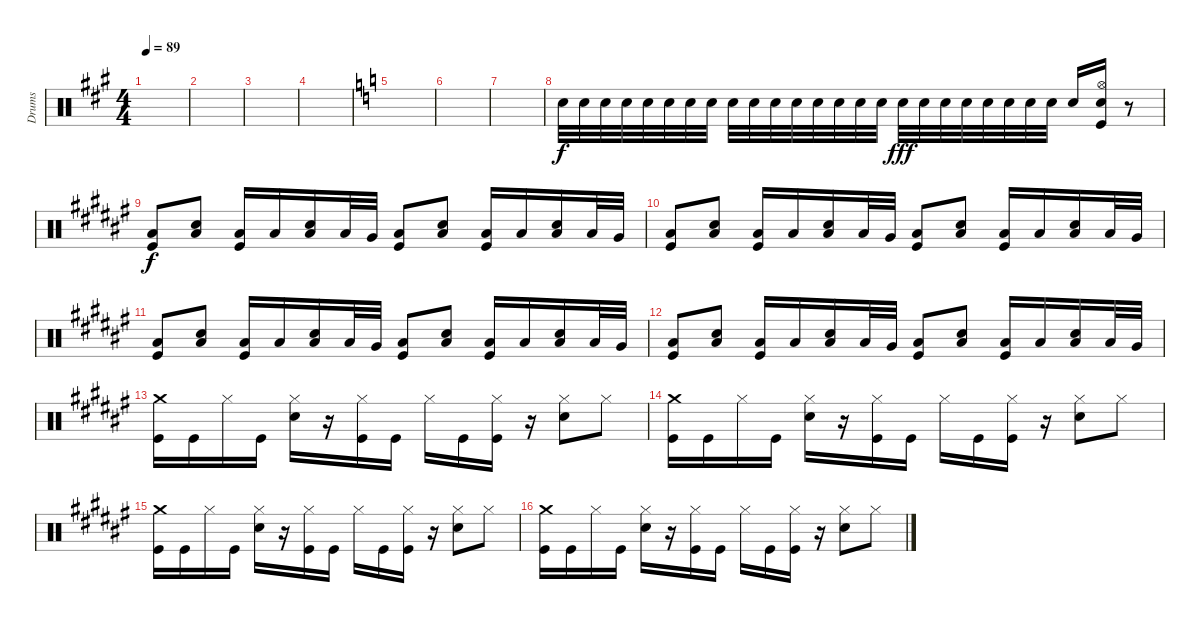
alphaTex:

\track ("Drums" "Drums") {instrument percussion}
\staff {score}
\articulation defaults
\ts (4 4)
\tempo 89
\clef neutral
\ks f#minor
|
|
|
|
\ks c
|
|
|
"Snare (hit) 2".32 "Snare (hit) 2".32 "Snare (hit) 2".32 "Snare (hit) 2".32 "Snare (hit) 2".32 "Snare (hit) 2".32 "Snare (hit) 2".32 "Snare (hit) 2".32 "Snare (hit) 2".32{dy f} "Snare (hit) 2".32 "Snare (hit) 2".32 "Snare (hit) 2".32 "Snare (hit) 2".32 "Snare (hit) 2".32 "Snare (hit) 2".32 "Snare (hit) 2".32 "Snare (hit) 2".32{dy fff} "Snare (hit) 2".32 "Snare (hit) 2".32 "Snare (hit) 2".32 "Snare (hit) 2".32 "Snare (hit) 2".32 "Snare (hit) 2".32 "Snare (hit) 2".32 "Snare (hit) 2".16 ("Hi-Hat (open)" "Snare (hit) 2" "Kick (hit)").16 r.8 |
\ks f#
("Kick (hit)" "Low Floor Tom (hit)").8{dy f} ("Snare (hit) 2" "Low Floor Tom (hit)").8 ("Kick (hit)" "Low Floor Tom (hit)").16 "Low Floor Tom (hit)".16 ("Snare (hit) 2" "Low Floor Tom (hit)").16 "Low Floor Tom (hit)".32 "Very Low Tom (hit)".32 ("Kick (hit)" "Low Floor Tom (hit)").8 ("Snare (hit) 2" "Low Floor Tom (hit)").8 ("Kick (hit)" "Low Floor Tom (hit)").16 "Low Floor Tom (hit)".16 ("Snare (hit) 2" "Low Floor Tom (hit)").16 "Low Floor Tom (hit)".32 "Very Low Tom (hit)".32 |
("Kick (hit)" "Low Floor Tom (hit)").8 ("Snare (hit) 2" "Low Floor Tom (hit)").8 ("Kick (hit)" "Low Floor Tom (hit)").16 "Low Floor Tom (hit)".16 ("Snare (hit) 2" "Low Floor Tom (hit)").16 "Low Floor Tom (hit)".32 "Very Low Tom (hit)".32 ("Kick (hit)" "Low Floor Tom (hit)").8 ("Snare (hit) 2" "Low Floor Tom (hit)").8 ("Kick (hit)" "Low Floor Tom (hit)").16 "Low Floor Tom (hit)".16 ("Snare (hit) 2" "Low Floor Tom (hit)").16 "Low Floor Tom (hit)".32 "Very Low Tom (hit)".32 |
("Kick (hit)" "Low Floor Tom (hit)").8 ("Snare (hit) 2" "Low Floor Tom (hit)").8 ("Kick (hit)" "Low Floor Tom (hit)").16 "Low Floor Tom (hit)".16 ("Snare (hit) 2" "Low Floor Tom (hit)").16 "Low Floor Tom (hit)".32 "Very Low Tom (hit)".32 ("Kick (hit)" "Low Floor Tom (hit)").8 ("Snare (hit) 2" "Low Floor Tom (hit)").8 ("Kick (hit)" "Low Floor Tom (hit)").16 "Low Floor Tom (hit)".16 ("Snare (hit) 2" "Low Floor Tom (hit)").16 "Low Floor Tom (hit)".32 "Very Low Tom (hit)".32 |
("Kick (hit)" "Low Floor Tom (hit)").8 ("Snare (hit) 2" "Low Floor Tom (hit)").8 ("Kick (hit)" "Low Floor Tom (hit)").16 "Low Floor Tom (hit)".16 ("Snare (hit) 2" "Low Floor Tom (hit)").16 "Low Floor Tom (hit)".32 "Very Low Tom (hit)".32 ("Kick (hit)" "Low Floor Tom (hit)").8 ("Snare (hit) 2" "Low Floor Tom (hit)").8 ("Kick (hit)" "Low Floor Tom (hit)").16 "Low Floor Tom (hit)".16 ("Snare (hit) 2" "Low Floor Tom (hit)").16 "Low Floor Tom (hit)".32 "Very Low Tom (hit)".32 |
("Crash medium (hit)" "Kick (hit)").16 "Kick (hit)".16 "Hi-Hat (closed)".16 "Kick (hit)".16 ("Hi-Hat (closed)" "Snare (hit) 2").16 r.16 ("Hi-Hat (closed)" "Kick (hit)").16 "Kick (hit)".16 "Hi-Hat (closed)".16 "Kick (hit)".16 ("Hi-Hat (closed)" "Kick (hit)").16 r.16 ("Hi-Hat (closed)" "Snare (hit) 2").8 "Hi-Hat (closed)".8 |
("Crash medium (hit)" "Kick (hit)").16 "Kick (hit)".16 "Hi-Hat (closed)".16 "Kick (hit)".16 ("Hi-Hat (closed)" "Snare (hit) 2").16 r.16 ("Hi-Hat (closed)" "Kick (hit)").16 "Kick (hit)".16 "Hi-Hat (closed)".16 "Kick (hit)".16 ("Hi-Hat (closed)" "Kick (hit)").16 r.16 ("Hi-Hat (closed)" "Snare (hit) 2").8 "Hi-Hat (closed)".8 |
("Crash medium (hit)" "Kick (hit)").16 "Kick (hit)".16 "Hi-Hat (closed)".16 "Kick (hit)".16 ("Hi-Hat (closed)" "Snare (hit) 2").16 r.16 ("Hi-Hat (closed)" "Kick (hit)").16 "Kick (hit)".16 "Hi-Hat (closed)".16 "Kick (hit)".16 ("Hi-Hat (closed)" "Kick (hit)").16 r.16 ("Hi-Hat (closed)" "Snare (hit) 2").8 "Hi-Hat (closed)".8 |
("Crash medium (hit)" "Kick (hit)").16 "Kick (hit)".16 "Hi-Hat (closed)".16 "Kick (hit)".16 ("Hi-Hat (closed)" "Snare (hit) 2").16 r.16 ("Hi-Hat (closed)" "Kick (hit)").16 "Kick (hit)".16 "Hi-Hat (closed)".16 "Kick (hit)".16 ("Hi-Hat (closed)" "Kick (hit)").16 r.16 ("Hi-Hat (closed)" "Snare (hit) 2").8 "Hi-Hat (closed)".8
